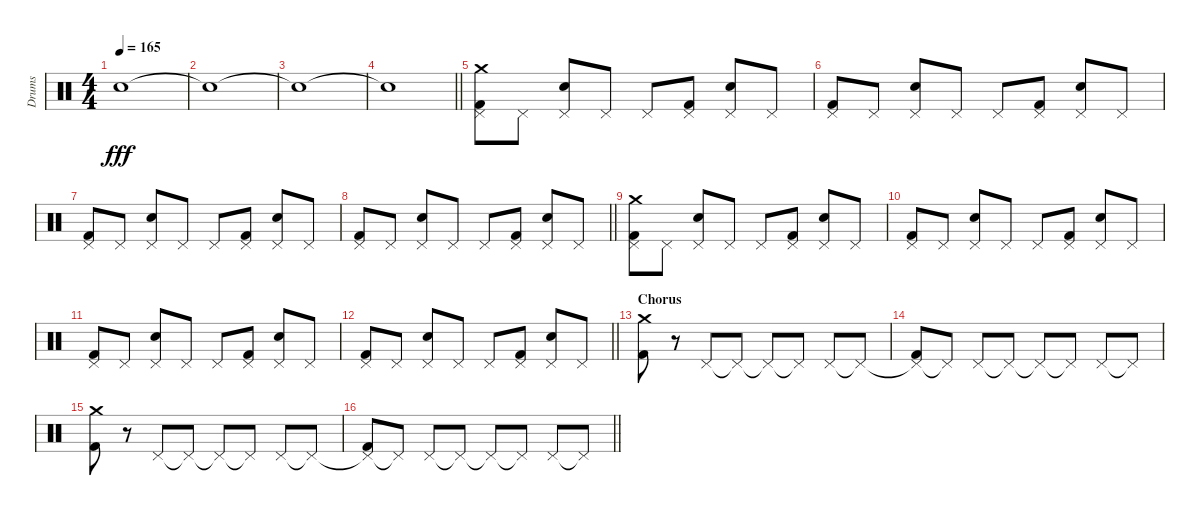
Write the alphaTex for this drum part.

\track ("Drums" "Drums") {instrument percussion}
\staff {score}
\articulation defaults
\ts (4 4)
\tempo 165
\clef neutral
\ks c "Snare (hit)"{t}.1{dy fff}
|
"Snare (hit)"{t}.1 |
"Snare (hit)"{t}.1 |
\barLineRight lightlight "Snare (hit)"{t}.1
|
("Crash medium (hit)" "Pedal Hi-Hat (hit)" "Kick (hit) 2").8 "Pedal Hi-Hat (hit)".8 ("Pedal Hi-Hat (hit)" "Snare (hit) 2").8 "Pedal Hi-Hat (hit)".8 "Pedal Hi-Hat (hit)".8 ("Pedal Hi-Hat (hit)" "Kick (hit) 2").8 ("Pedal Hi-Hat (hit)" "Snare (hit) 2").8 "Pedal Hi-Hat (hit)".8 |
("Pedal Hi-Hat (hit)" "Kick (hit) 2").8 "Pedal Hi-Hat (hit)".8 ("Pedal Hi-Hat (hit)" "Snare (hit) 2").8 "Pedal Hi-Hat (hit)".8 "Pedal Hi-Hat (hit)".8 ("Pedal Hi-Hat (hit)" "Kick (hit) 2").8 ("Pedal Hi-Hat (hit)" "Snare (hit) 2").8 "Pedal Hi-Hat (hit)".8 |
("Pedal Hi-Hat (hit)" "Kick (hit) 2").8 "Pedal Hi-Hat (hit)".8 ("Pedal Hi-Hat (hit)" "Snare (hit) 2").8 "Pedal Hi-Hat (hit)".8 "Pedal Hi-Hat (hit)".8 ("Pedal Hi-Hat (hit)" "Kick (hit) 2").8 ("Pedal Hi-Hat (hit)" "Snare (hit) 2").8 "Pedal Hi-Hat (hit)".8 |
\barLineRight lightlight
("Pedal Hi-Hat (hit)" "Kick (hit) 2").8 "Pedal Hi-Hat (hit)".8 ("Pedal Hi-Hat (hit)" "Snare (hit) 2").8 "Pedal Hi-Hat (hit)".8 "Pedal Hi-Hat (hit)".8 ("Pedal Hi-Hat (hit)" "Kick (hit) 2").8 ("Pedal Hi-Hat (hit)" "Snare (hit) 2").8 "Pedal Hi-Hat (hit)".8 |
("Crash medium (hit)" "Pedal Hi-Hat (hit)" "Kick (hit) 2").8 "Pedal Hi-Hat (hit)".8 ("Pedal Hi-Hat (hit)" "Snare (hit) 2").8 "Pedal Hi-Hat (hit)".8 "Pedal Hi-Hat (hit)".8 ("Pedal Hi-Hat (hit)" "Kick (hit) 2").8 ("Pedal Hi-Hat (hit)" "Snare (hit) 2").8 "Pedal Hi-Hat (hit)".8 |
("Pedal Hi-Hat (hit)" "Kick (hit) 2").8 "Pedal Hi-Hat (hit)".8 ("Pedal Hi-Hat (hit)" "Snare (hit) 2").8 "Pedal Hi-Hat (hit)".8 "Pedal Hi-Hat (hit)".8 ("Pedal Hi-Hat (hit)" "Kick (hit) 2").8 ("Pedal Hi-Hat (hit)" "Snare (hit) 2").8 "Pedal Hi-Hat (hit)".8 |
("Pedal Hi-Hat (hit)" "Kick (hit) 2").8 "Pedal Hi-Hat (hit)".8 ("Pedal Hi-Hat (hit)" "Snare (hit) 2").8 "Pedal Hi-Hat (hit)".8 "Pedal Hi-Hat (hit)".8 ("Pedal Hi-Hat (hit)" "Kick (hit) 2").8 ("Pedal Hi-Hat (hit)" "Snare (hit) 2").8 "Pedal Hi-Hat (hit)".8 |
\barLineRight lightlight
("Pedal Hi-Hat (hit)" "Kick (hit) 2").8 "Pedal Hi-Hat (hit)".8 ("Pedal Hi-Hat (hit)" "Snare (hit) 2").8 "Pedal Hi-Hat (hit)".8 "Pedal Hi-Hat (hit)".8 ("Pedal Hi-Hat (hit)" "Kick (hit) 2").8 ("Pedal Hi-Hat (hit)" "Snare (hit) 2").8 "Pedal Hi-Hat (hit)".8 |
\section ("" "Chorus")
("Crash medium (hit)" "Kick (hit) 2").8 r.8 "Pedal Hi-Hat (hit)".8 "Pedal Hi-Hat (hit)"{t}.8 "Pedal Hi-Hat (hit)"{t}.8 "Pedal Hi-Hat (hit)"{t}.8 "Pedal Hi-Hat (hit)".8 "Pedal Hi-Hat (hit)"{t}.8 |
("Pedal Hi-Hat (hit)"{t} "Kick (hit) 2").8 "Pedal Hi-Hat (hit)"{t}.8 "Pedal Hi-Hat (hit)".8 "Pedal Hi-Hat (hit)"{t}.8 "Pedal Hi-Hat (hit)"{t}.8 "Pedal Hi-Hat (hit)"{t}.8 "Pedal Hi-Hat (hit)".8 "Pedal Hi-Hat (hit)"{t}.8 |
("Crash medium (hit)" "Kick (hit) 2").8 r.8 "Pedal Hi-Hat (hit)".8 "Pedal Hi-Hat (hit)"{t}.8 "Pedal Hi-Hat (hit)"{t}.8 "Pedal Hi-Hat (hit)"{t}.8 "Pedal Hi-Hat (hit)".8 "Pedal Hi-Hat (hit)"{t}.8 |
\barLineRight lightlight
("Pedal Hi-Hat (hit)"{t} "Kick (hit) 2").8 "Pedal Hi-Hat (hit)"{t}.8 "Pedal Hi-Hat (hit)".8 "Pedal Hi-Hat (hit)"{t}.8 "Pedal Hi-Hat (hit)"{t}.8 "Pedal Hi-Hat (hit)"{t}.8 "Pedal Hi-Hat (hit)".8 "Pedal Hi-Hat (hit)"{t}.8
